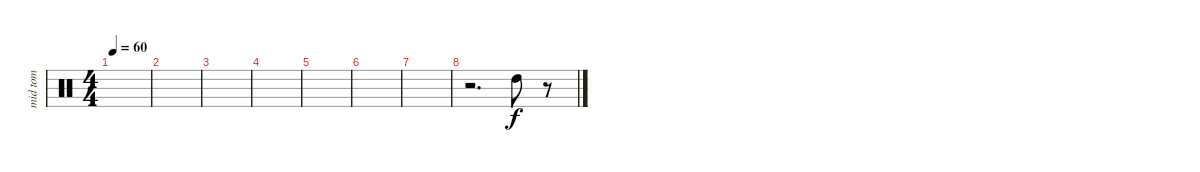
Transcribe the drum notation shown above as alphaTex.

\track ("mid tom" "mid tom") {instrument percussion}
\staff {score}
\articulation defaults
\ts (4 4)
\tempo 60
\clef neutral
\ks c
|
|
|
|
|
|
|
r.2{d} "High Tom (hit)".8 r.8
